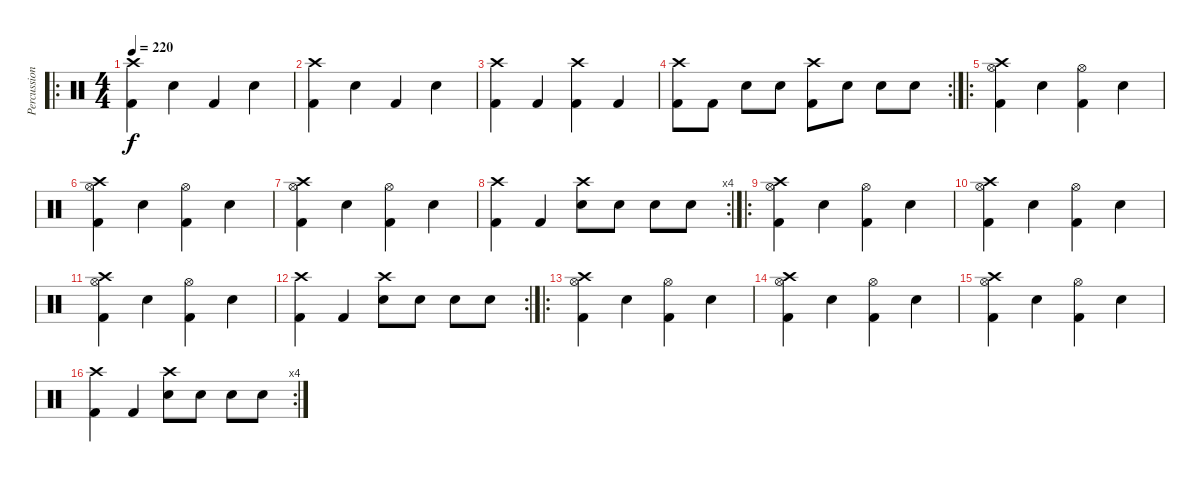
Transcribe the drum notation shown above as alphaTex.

\track ("Percussion" "Percussion") {instrument percussion}
\staff {score}
\articulation defaults
\ro
\ts (4 4)
\tempo 220
\clef neutral
\ks c
("Crash high (hit)" "Kick (hit) 2").4{dy f} "Snare (hit) 2".4 "Kick (hit) 2".4 "Snare (hit) 2".4 |
("Crash high (hit)" "Kick (hit) 2").4 "Snare (hit) 2".4 "Kick (hit) 2".4 "Snare (hit) 2".4 |
("Crash high (hit)" "Kick (hit) 2").4 "Kick (hit) 2".4 ("Crash high (hit)" "Kick (hit) 2").4 "Kick (hit) 2".4 |
\rc 2
("Crash high (hit)" "Kick (hit) 2").8 "Kick (hit) 2".8 "Snare (hit) 2".8 "Snare (hit) 2".8 ("Crash high (hit)" "Kick (hit) 2").8 "Snare (hit) 2".8 "Snare (hit) 2".8 "Snare (hit) 2".8 |
\ro
("Crash high (hit)" "Hi-Hat (open)" "Kick (hit) 2").4 "Snare (hit) 2".4 ("Hi-Hat (open)" "Kick (hit) 2").4 "Snare (hit) 2".4 |
("Crash high (hit)" "Hi-Hat (open)" "Kick (hit) 2").4 "Snare (hit) 2".4 ("Hi-Hat (open)" "Kick (hit) 2").4 "Snare (hit) 2".4 |
("Crash high (hit)" "Hi-Hat (open)" "Kick (hit) 2").4 "Snare (hit) 2".4 ("Hi-Hat (open)" "Kick (hit) 2").4 "Snare (hit) 2".4 |
\rc 4
("Crash high (hit)" "Kick (hit) 2").4 "Kick (hit) 2".4 ("Crash high (hit)" "Snare (hit) 2").8 "Snare (hit) 2".8 "Snare (hit) 2".8 "Snare (hit) 2".8 |
\ro
("Crash high (hit)" "Hi-Hat (open)" "Kick (hit) 2").4 "Snare (hit) 2".4 ("Hi-Hat (open)" "Kick (hit) 2").4 "Snare (hit) 2".4 |
("Crash high (hit)" "Hi-Hat (open)" "Kick (hit) 2").4 "Snare (hit) 2".4 ("Hi-Hat (open)" "Kick (hit) 2").4 "Snare (hit) 2".4 |
("Crash high (hit)" "Hi-Hat (open)" "Kick (hit) 2").4 "Snare (hit) 2".4 ("Hi-Hat (open)" "Kick (hit) 2").4 "Snare (hit) 2".4 |
\rc 2
("Crash high (hit)" "Kick (hit) 2").4 "Kick (hit) 2".4 ("Crash high (hit)" "Snare (hit) 2").8 "Snare (hit) 2".8 "Snare (hit) 2".8 "Snare (hit) 2".8 |
\ro
("Crash high (hit)" "Hi-Hat (open)" "Kick (hit) 2").4 "Snare (hit) 2".4 ("Hi-Hat (open)" "Kick (hit) 2").4 "Snare (hit) 2".4 |
("Crash high (hit)" "Hi-Hat (open)" "Kick (hit) 2").4 "Snare (hit) 2".4 ("Hi-Hat (open)" "Kick (hit) 2").4 "Snare (hit) 2".4 |
("Crash high (hit)" "Hi-Hat (open)" "Kick (hit) 2").4 "Snare (hit) 2".4 ("Hi-Hat (open)" "Kick (hit) 2").4 "Snare (hit) 2".4 |
\rc 4
("Crash high (hit)" "Kick (hit) 2").4 "Kick (hit) 2".4 ("Crash high (hit)" "Snare (hit) 2").8 "Snare (hit) 2".8 "Snare (hit) 2".8 "Snare (hit) 2".8
